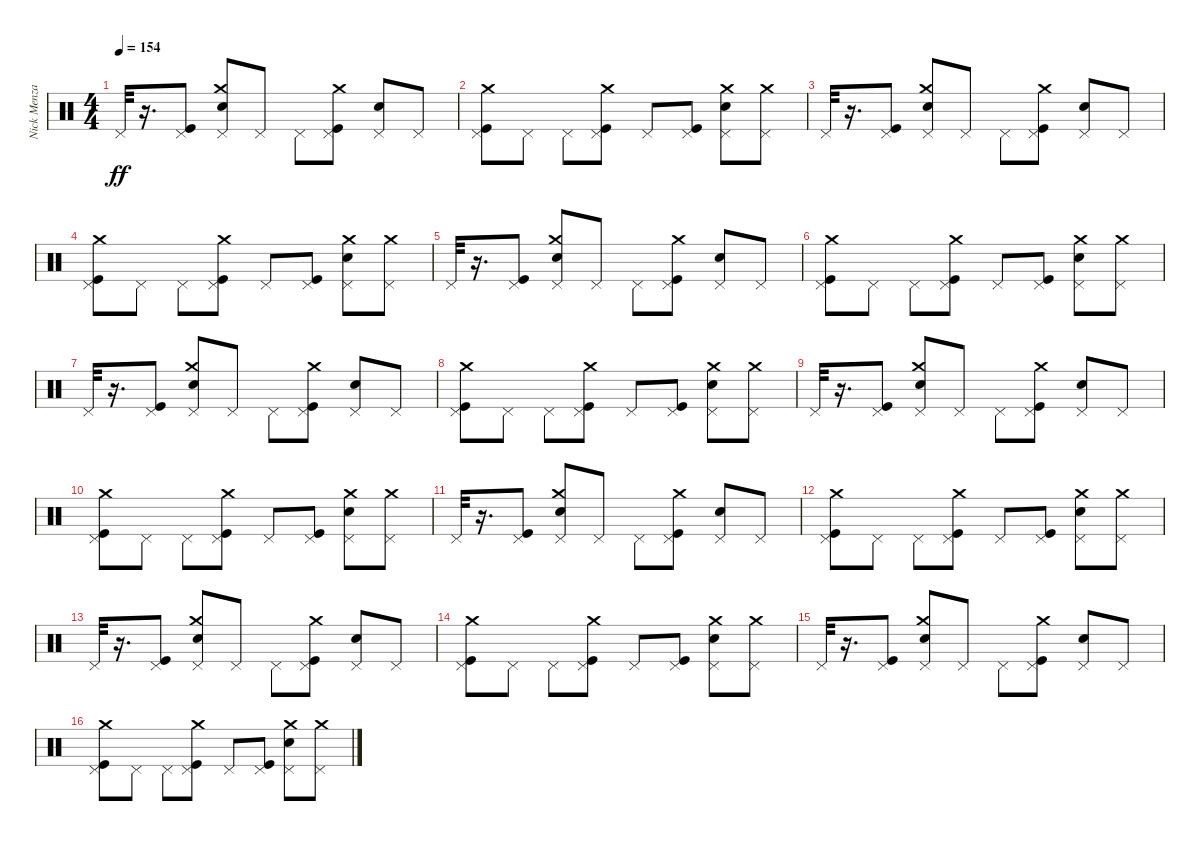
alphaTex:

\track ("Nick Menza" "Nick Menza") {instrument percussion}
\staff {score}
\articulation defaults
\ts (4 4)
\tempo 154
\clef neutral
\ks c "Pedal Hi-Hat (hit)".32{dy ff}
r.16{d} ("Pedal Hi-Hat (hit)" "Kick (hit)").8 ("Pedal Hi-Hat (hit)" "Crash medium (hit)" "Electric Snare (hit)").8 "Pedal Hi-Hat (hit)".8 "Pedal Hi-Hat (hit)".8 ("Kick (hit)" "Pedal Hi-Hat (hit)" "Crash medium (hit)").8 ("Electric Snare (hit)" "Pedal Hi-Hat (hit)").8 "Pedal Hi-Hat (hit)".8 |
("Crash medium (hit)" "Kick (hit)" "Pedal Hi-Hat (hit)").8 "Pedal Hi-Hat (hit)".8 "Pedal Hi-Hat (hit)".8 ("Crash medium (hit)" "Pedal Hi-Hat (hit)" "Kick (hit)").8 "Pedal Hi-Hat (hit)".8 ("Kick (hit)" "Pedal Hi-Hat (hit)").8 ("Crash medium (hit)" "Electric Snare (hit)" "Pedal Hi-Hat (hit)").8 ("Crash medium (hit)" "Pedal Hi-Hat (hit)").8 |
"Pedal Hi-Hat (hit)".32 r.16{d} ("Pedal Hi-Hat (hit)" "Kick (hit)").8 ("Electric Snare (hit)" "Pedal Hi-Hat (hit)" "Crash medium (hit)").8 "Pedal Hi-Hat (hit)".8 "Pedal Hi-Hat (hit)".8 ("Kick (hit)" "Pedal Hi-Hat (hit)" "Crash medium (hit)").8 ("Electric Snare (hit)" "Pedal Hi-Hat (hit)").8 "Pedal Hi-Hat (hit)".8 |
("Crash medium (hit)" "Pedal Hi-Hat (hit)" "Kick (hit)").8 "Pedal Hi-Hat (hit)".8 "Pedal Hi-Hat (hit)".8 ("Crash medium (hit)" "Kick (hit)" "Pedal Hi-Hat (hit)").8 "Pedal Hi-Hat (hit)".8 ("Kick (hit)" "Pedal Hi-Hat (hit)").8 ("Pedal Hi-Hat (hit)" "Electric Snare (hit)" "Crash medium (hit)").8 ("Crash medium (hit)" "Pedal Hi-Hat (hit)").8 |
"Pedal Hi-Hat (hit)".32 r.16{d} ("Pedal Hi-Hat (hit)" "Kick (hit)").8 ("Crash medium (hit)" "Electric Snare (hit)" "Pedal Hi-Hat (hit)").8 "Pedal Hi-Hat (hit)".8 "Pedal Hi-Hat (hit)".8 ("Crash medium (hit)" "Kick (hit)" "Pedal Hi-Hat (hit)").8 ("Electric Snare (hit)" "Pedal Hi-Hat (hit)").8 "Pedal Hi-Hat (hit)".8 |
("Crash medium (hit)" "Pedal Hi-Hat (hit)" "Kick (hit)").8 "Pedal Hi-Hat (hit)".8 "Pedal Hi-Hat (hit)".8 ("Crash medium (hit)" "Pedal Hi-Hat (hit)" "Kick (hit)").8 "Pedal Hi-Hat (hit)".8 ("Kick (hit)" "Pedal Hi-Hat (hit)").8 ("Crash medium (hit)" "Electric Snare (hit)" "Pedal Hi-Hat (hit)").8 ("Crash medium (hit)" "Pedal Hi-Hat (hit)").8 |
"Pedal Hi-Hat (hit)".32 r.16{d} ("Pedal Hi-Hat (hit)" "Kick (hit)").8 ("Crash medium (hit)" "Pedal Hi-Hat (hit)" "Electric Snare (hit)").8 "Pedal Hi-Hat (hit)".8 "Pedal Hi-Hat (hit)".8 ("Kick (hit)" "Pedal Hi-Hat (hit)" "Crash medium (hit)").8 ("Electric Snare (hit)" "Pedal Hi-Hat (hit)").8 "Pedal Hi-Hat (hit)".8 |
("Crash medium (hit)" "Kick (hit)" "Pedal Hi-Hat (hit)").8 "Pedal Hi-Hat (hit)".8 "Pedal Hi-Hat (hit)".8 ("Crash medium (hit)" "Pedal Hi-Hat (hit)" "Kick (hit)").8 "Pedal Hi-Hat (hit)".8 ("Kick (hit)" "Pedal Hi-Hat (hit)").8 ("Crash medium (hit)" "Electric Snare (hit)" "Pedal Hi-Hat (hit)").8 ("Crash medium (hit)" "Pedal Hi-Hat (hit)").8 |
"Pedal Hi-Hat (hit)".32 r.16{d} ("Pedal Hi-Hat (hit)" "Kick (hit)").8 ("Electric Snare (hit)" "Pedal Hi-Hat (hit)" "Crash medium (hit)").8 "Pedal Hi-Hat (hit)".8 "Pedal Hi-Hat (hit)".8 ("Kick (hit)" "Pedal Hi-Hat (hit)" "Crash medium (hit)").8 ("Electric Snare (hit)" "Pedal Hi-Hat (hit)").8 "Pedal Hi-Hat (hit)".8 |
("Crash medium (hit)" "Kick (hit)" "Pedal Hi-Hat (hit)").8 "Pedal Hi-Hat (hit)".8 "Pedal Hi-Hat (hit)".8 ("Crash medium (hit)" "Pedal Hi-Hat (hit)" "Kick (hit)").8 "Pedal Hi-Hat (hit)".8 ("Kick (hit)" "Pedal Hi-Hat (hit)").8 ("Crash medium (hit)" "Electric Snare (hit)" "Pedal Hi-Hat (hit)").8 ("Crash medium (hit)" "Pedal Hi-Hat (hit)").8 |
"Pedal Hi-Hat (hit)".32 r.16{d} ("Pedal Hi-Hat (hit)" "Kick (hit)").8 ("Electric Snare (hit)" "Pedal Hi-Hat (hit)" "Crash medium (hit)").8 "Pedal Hi-Hat (hit)".8 "Pedal Hi-Hat (hit)".8 ("Kick (hit)" "Pedal Hi-Hat (hit)" "Crash medium (hit)").8 ("Electric Snare (hit)" "Pedal Hi-Hat (hit)").8 "Pedal Hi-Hat (hit)".8 |
("Crash medium (hit)" "Pedal Hi-Hat (hit)" "Kick (hit)").8 "Pedal Hi-Hat (hit)".8 "Pedal Hi-Hat (hit)".8 ("Crash medium (hit)" "Pedal Hi-Hat (hit)" "Kick (hit)").8 "Pedal Hi-Hat (hit)".8 ("Kick (hit)" "Pedal Hi-Hat (hit)").8 ("Crash medium (hit)" "Electric Snare (hit)" "Pedal Hi-Hat (hit)").8 ("Crash medium (hit)" "Pedal Hi-Hat (hit)").8 |
"Pedal Hi-Hat (hit)".32 r.16{d} ("Pedal Hi-Hat (hit)" "Kick (hit)").8 ("Crash medium (hit)" "Electric Snare (hit)" "Pedal Hi-Hat (hit)").8 "Pedal Hi-Hat (hit)".8 "Pedal Hi-Hat (hit)".8 ("Crash medium (hit)" "Kick (hit)" "Pedal Hi-Hat (hit)").8 ("Electric Snare (hit)" "Pedal Hi-Hat (hit)").8 "Pedal Hi-Hat (hit)".8 |
("Crash medium (hit)" "Pedal Hi-Hat (hit)" "Kick (hit)").8 "Pedal Hi-Hat (hit)".8 "Pedal Hi-Hat (hit)".8 ("Crash medium (hit)" "Pedal Hi-Hat (hit)" "Kick (hit)").8 "Pedal Hi-Hat (hit)".8 ("Kick (hit)" "Pedal Hi-Hat (hit)").8 ("Crash medium (hit)" "Electric Snare (hit)" "Pedal Hi-Hat (hit)").8 ("Crash medium (hit)" "Pedal Hi-Hat (hit)").8 |
"Pedal Hi-Hat (hit)".32 r.16{d} ("Pedal Hi-Hat (hit)" "Kick (hit)").8 ("Crash medium (hit)" "Pedal Hi-Hat (hit)" "Electric Snare (hit)").8 "Pedal Hi-Hat (hit)".8 "Pedal Hi-Hat (hit)".8 ("Kick (hit)" "Pedal Hi-Hat (hit)" "Crash medium (hit)").8 ("Electric Snare (hit)" "Pedal Hi-Hat (hit)").8 "Pedal Hi-Hat (hit)".8 |
("Crash medium (hit)" "Kick (hit)" "Pedal Hi-Hat (hit)").8 "Pedal Hi-Hat (hit)".8 "Pedal Hi-Hat (hit)".8 ("Crash medium (hit)" "Pedal Hi-Hat (hit)" "Kick (hit)").8 "Pedal Hi-Hat (hit)".8 ("Kick (hit)" "Pedal Hi-Hat (hit)").8 ("Crash medium (hit)" "Electric Snare (hit)" "Pedal Hi-Hat (hit)").8 ("Crash medium (hit)" "Pedal Hi-Hat (hit)").8
